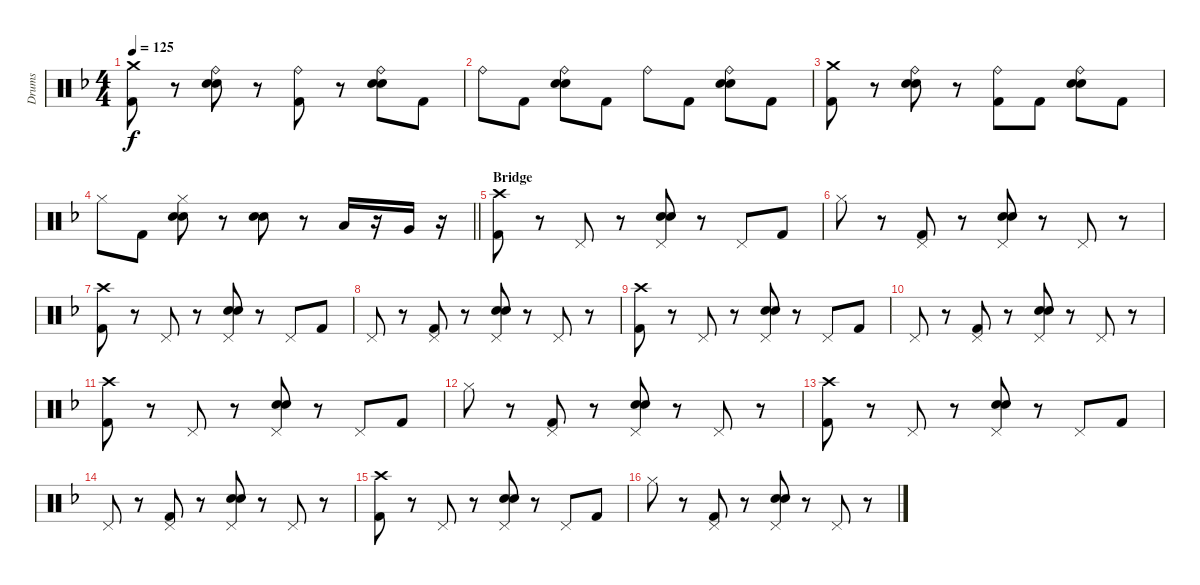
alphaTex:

\track ("Drums" "Drums") {instrument percussion}
\staff {score}
\articulation defaults
\ts (4 4)
\tempo 125
\clef neutral
\ks f
("Crash medium (hit)" "Kick (hit) 2").8{dy f} r.8 ("Ride (bell)" "Electric Snare (hit)" "Snare (hit) 2").8 r.8 ("Ride (bell)" "Kick (hit) 2").8 r.8 ("Ride (bell)" "Electric Snare (hit)" "Snare (hit) 2").8 "Kick (hit) 2".8 |
"Ride (bell)".8 "Kick (hit) 2".8 ("Ride (bell)" "Electric Snare (hit)" "Snare (hit) 2").8 "Kick (hit) 2".8 "Ride (bell)".8 "Kick (hit) 2".8 ("Ride (bell)" "Electric Snare (hit)" "Snare (hit) 2").8 "Kick (hit) 2".8 |
("Crash medium (hit)" "Kick (hit) 2").8 r.8 ("Ride (bell)" "Electric Snare (hit)" "Snare (hit) 2").8 r.8 ("Ride (bell)" "Kick (hit) 2").8 "Kick (hit) 2".8 ("Ride (bell)" "Electric Snare (hit)" "Snare (hit) 2").8 "Kick (hit) 2".8 |
\barLineRight lightlight "Hi-Hat (closed)".8 "Kick (hit) 2".8
("Hi-Hat (closed)" "Electric Snare (hit)" "Snare (hit) 2").8 r.8 ("Electric Snare (hit)" "Snare (hit) 2").8 r.8 "Low Tom (hit)".16 r.16 "Very Low Tom (hit)".16 r.16 |
\section ("" "Bridge")
("Crash high (hit)" "Kick (hit) 2").8 r.8 "Pedal Hi-Hat (hit)".8 r.8 ("Pedal Hi-Hat (hit)" "Electric Snare (hit)" "Snare (hit) 2").8 r.8 "Pedal Hi-Hat (hit)".8 "Kick (hit) 2".8 |
"Hi-Hat (closed)".8 r.8 ("Pedal Hi-Hat (hit)" "Kick (hit) 2").8 r.8 ("Pedal Hi-Hat (hit)" "Electric Snare (hit)" "Snare (hit) 2").8 r.8 "Pedal Hi-Hat (hit)".8 r.8 |
("Crash high (hit)" "Kick (hit) 2").8 r.8 "Pedal Hi-Hat (hit)".8 r.8 ("Pedal Hi-Hat (hit)" "Electric Snare (hit)" "Snare (hit) 2").8 r.8 "Pedal Hi-Hat (hit)".8 "Kick (hit) 2".8 |
"Pedal Hi-Hat (hit)".8 r.8 ("Pedal Hi-Hat (hit)" "Kick (hit) 2").8 r.8 ("Pedal Hi-Hat (hit)" "Electric Snare (hit)" "Snare (hit) 2").8 r.8 "Pedal Hi-Hat (hit)".8 r.8 |
("Crash high (hit)" "Kick (hit) 2").8 r.8 "Pedal Hi-Hat (hit)".8 r.8 ("Pedal Hi-Hat (hit)" "Electric Snare (hit)" "Snare (hit) 2").8 r.8 "Pedal Hi-Hat (hit)".8 "Kick (hit) 2".8 |
"Pedal Hi-Hat (hit)".8 r.8 ("Pedal Hi-Hat (hit)" "Kick (hit) 2").8 r.8 ("Pedal Hi-Hat (hit)" "Electric Snare (hit)" "Snare (hit) 2").8 r.8 "Pedal Hi-Hat (hit)".8 r.8 |
("Crash high (hit)" "Kick (hit) 2").8 r.8 "Pedal Hi-Hat (hit)".8 r.8 ("Pedal Hi-Hat (hit)" "Electric Snare (hit)" "Snare (hit) 2").8 r.8 "Pedal Hi-Hat (hit)".8 "Kick (hit) 2".8 |
"Hi-Hat (closed)".8 r.8 ("Pedal Hi-Hat (hit)" "Kick (hit) 2").8 r.8 ("Pedal Hi-Hat (hit)" "Electric Snare (hit)" "Snare (hit) 2").8 r.8 "Pedal Hi-Hat (hit)".8 r.8 |
("Crash high (hit)" "Kick (hit) 2").8 r.8 "Pedal Hi-Hat (hit)".8 r.8 ("Pedal Hi-Hat (hit)" "Electric Snare (hit)" "Snare (hit) 2").8 r.8 "Pedal Hi-Hat (hit)".8 "Kick (hit) 2".8 |
"Pedal Hi-Hat (hit)".8 r.8 ("Pedal Hi-Hat (hit)" "Kick (hit) 2").8 r.8 ("Pedal Hi-Hat (hit)" "Electric Snare (hit)" "Snare (hit) 2").8 r.8 "Pedal Hi-Hat (hit)".8 r.8 |
("Crash high (hit)" "Kick (hit) 2").8 r.8 "Pedal Hi-Hat (hit)".8 r.8 ("Pedal Hi-Hat (hit)" "Electric Snare (hit)" "Snare (hit) 2").8 r.8 "Pedal Hi-Hat (hit)".8 "Kick (hit) 2".8 |
"Hi-Hat (closed)".8 r.8 ("Pedal Hi-Hat (hit)" "Kick (hit) 2").8 r.8 ("Pedal Hi-Hat (hit)" "Electric Snare (hit)" "Snare (hit) 2").8 r.8 "Pedal Hi-Hat (hit)".8 r.8
